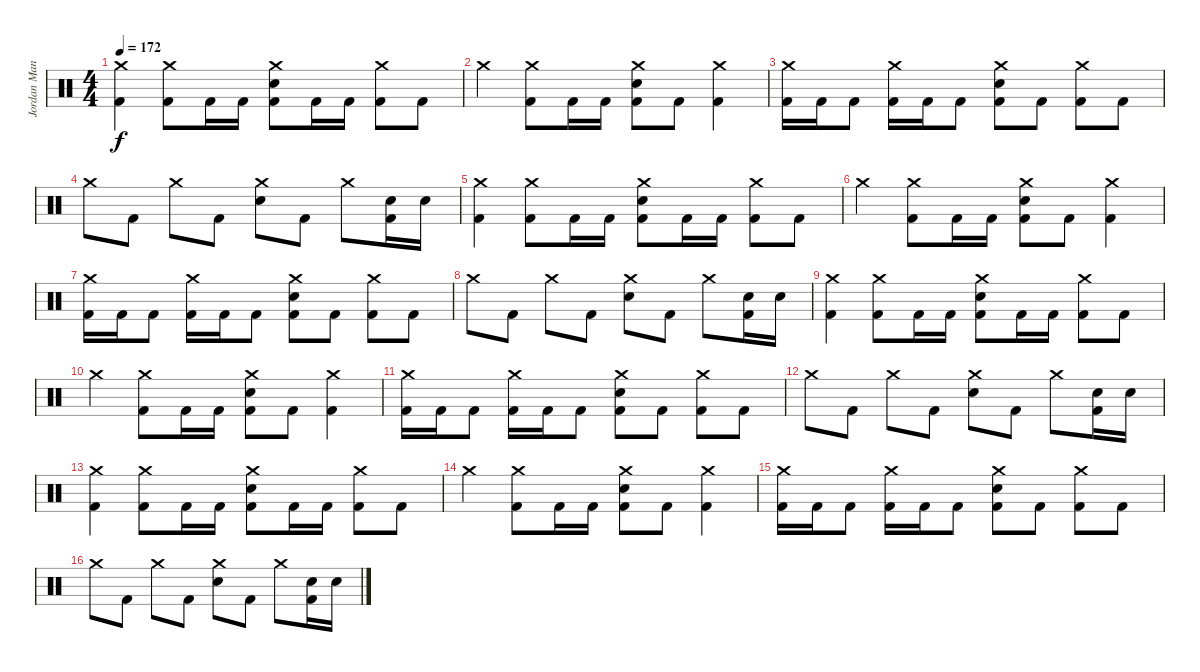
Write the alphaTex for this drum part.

\track ("Jordan Mancino" "Jordan Man") {instrument percussion}
\staff {score}
\articulation defaults
\ts (4 4)
\tempo 172
\clef neutral
\ks c
("Crash medium (hit)" "Kick (hit) 2").4{dy f} ("Crash medium (hit)" "Kick (hit) 2").8 "Kick (hit) 2".16 "Kick (hit) 2".16 ("Crash medium (hit)" "Electric Snare (hit)" "Kick (hit) 2").8 "Kick (hit) 2".16 "Kick (hit) 2".16 ("Crash medium (hit)" "Kick (hit) 2").8 "Kick (hit) 2".8 |
"Crash medium (hit)".4 ("Crash medium (hit)" "Kick (hit) 2").8 "Kick (hit) 2".16 "Kick (hit) 2".16 ("Crash medium (hit)" "Electric Snare (hit)" "Kick (hit) 2").8 "Kick (hit) 2".8 ("Crash medium (hit)" "Kick (hit) 2").4 |
("Crash medium (hit)" "Kick (hit) 2").16 "Kick (hit) 2".16 "Kick (hit) 2".8 ("Crash medium (hit)" "Kick (hit) 2").16 "Kick (hit) 2".16 "Kick (hit) 2".8 ("Crash medium (hit)" "Electric Snare (hit)" "Kick (hit) 2").8 "Kick (hit) 2".8 ("Crash medium (hit)" "Kick (hit) 2").8 "Kick (hit) 2".8 |
"Crash medium (hit)".8 "Kick (hit) 2".8 "Crash medium (hit)".8 "Kick (hit) 2".8 ("Crash medium (hit)" "Electric Snare (hit)").8 "Kick (hit) 2".8 "Crash medium (hit)".8 ("Electric Snare (hit)" "Kick (hit) 2").16 "Electric Snare (hit)".16 |
("Crash medium (hit)" "Kick (hit) 2").4 ("Crash medium (hit)" "Kick (hit) 2").8 "Kick (hit) 2".16 "Kick (hit) 2".16 ("Crash medium (hit)" "Electric Snare (hit)" "Kick (hit) 2").8 "Kick (hit) 2".16 "Kick (hit) 2".16 ("Crash medium (hit)" "Kick (hit) 2").8 "Kick (hit) 2".8 |
"Crash medium (hit)".4 ("Crash medium (hit)" "Kick (hit) 2").8 "Kick (hit) 2".16 "Kick (hit) 2".16 ("Crash medium (hit)" "Electric Snare (hit)" "Kick (hit) 2").8 "Kick (hit) 2".8 ("Crash medium (hit)" "Kick (hit) 2").4 |
("Crash medium (hit)" "Kick (hit) 2").16 "Kick (hit) 2".16 "Kick (hit) 2".8 ("Crash medium (hit)" "Kick (hit) 2").16 "Kick (hit) 2".16 "Kick (hit) 2".8 ("Crash medium (hit)" "Electric Snare (hit)" "Kick (hit) 2").8 "Kick (hit) 2".8 ("Crash medium (hit)" "Kick (hit) 2").8 "Kick (hit) 2".8 |
"Crash medium (hit)".8 "Kick (hit) 2".8 "Crash medium (hit)".8 "Kick (hit) 2".8 ("Crash medium (hit)" "Electric Snare (hit)").8 "Kick (hit) 2".8 "Crash medium (hit)".8 ("Electric Snare (hit)" "Kick (hit) 2").16 "Electric Snare (hit)".16 |
("Crash medium (hit)" "Kick (hit) 2").4 ("Crash medium (hit)" "Kick (hit) 2").8 "Kick (hit) 2".16 "Kick (hit) 2".16 ("Crash medium (hit)" "Electric Snare (hit)" "Kick (hit) 2").8 "Kick (hit) 2".16 "Kick (hit) 2".16 ("Crash medium (hit)" "Kick (hit) 2").8 "Kick (hit) 2".8 |
"Crash medium (hit)".4 ("Crash medium (hit)" "Kick (hit) 2").8 "Kick (hit) 2".16 "Kick (hit) 2".16 ("Crash medium (hit)" "Electric Snare (hit)" "Kick (hit) 2").8 "Kick (hit) 2".8 ("Crash medium (hit)" "Kick (hit) 2").4 |
("Crash medium (hit)" "Kick (hit) 2").16 "Kick (hit) 2".16 "Kick (hit) 2".8 ("Crash medium (hit)" "Kick (hit) 2").16 "Kick (hit) 2".16 "Kick (hit) 2".8 ("Crash medium (hit)" "Electric Snare (hit)" "Kick (hit) 2").8 "Kick (hit) 2".8 ("Crash medium (hit)" "Kick (hit) 2").8 "Kick (hit) 2".8 |
"Crash medium (hit)".8 "Kick (hit) 2".8 "Crash medium (hit)".8 "Kick (hit) 2".8 ("Crash medium (hit)" "Electric Snare (hit)").8 "Kick (hit) 2".8 "Crash medium (hit)".8 ("Electric Snare (hit)" "Kick (hit) 2").16 "Electric Snare (hit)".16 |
("Crash medium (hit)" "Kick (hit) 2").4 ("Crash medium (hit)" "Kick (hit) 2").8 "Kick (hit) 2".16 "Kick (hit) 2".16 ("Crash medium (hit)" "Electric Snare (hit)" "Kick (hit) 2").8 "Kick (hit) 2".16 "Kick (hit) 2".16 ("Crash medium (hit)" "Kick (hit) 2").8 "Kick (hit) 2".8 |
"Crash medium (hit)".4 ("Crash medium (hit)" "Kick (hit) 2").8 "Kick (hit) 2".16 "Kick (hit) 2".16 ("Crash medium (hit)" "Electric Snare (hit)" "Kick (hit) 2").8 "Kick (hit) 2".8 ("Crash medium (hit)" "Kick (hit) 2").4 |
("Crash medium (hit)" "Kick (hit) 2").16 "Kick (hit) 2".16 "Kick (hit) 2".8 ("Crash medium (hit)" "Kick (hit) 2").16 "Kick (hit) 2".16 "Kick (hit) 2".8 ("Crash medium (hit)" "Electric Snare (hit)" "Kick (hit) 2").8 "Kick (hit) 2".8 ("Crash medium (hit)" "Kick (hit) 2").8 "Kick (hit) 2".8 |
"Crash medium (hit)".8 "Kick (hit) 2".8 "Crash medium (hit)".8 "Kick (hit) 2".8 ("Crash medium (hit)" "Electric Snare (hit)").8 "Kick (hit) 2".8 "Crash medium (hit)".8 ("Electric Snare (hit)" "Kick (hit) 2").16 "Electric Snare (hit)".16
